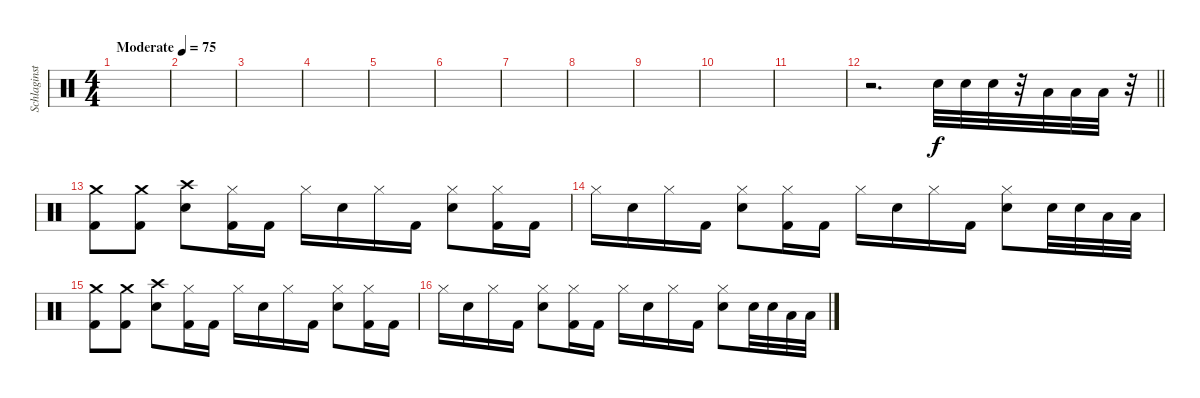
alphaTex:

\track ("Schlaginstrumente - Auswahl" "Schlaginst") {instrument percussion}
\staff {score}
\articulation defaults
\ts (4 4)
\tempo (75 "Moderate")
\clef neutral
\ks c
|
|
|
|
|
|
|
|
|
|
|
\barLineRight lightlight
r.2{d} "Snare (hit) 2".32 "Snare (hit) 2".32 "Snare (hit) 2".32 r.32 "Low Tom (hit)".32 "Low Tom (hit)".32 "Low Tom (hit)".32 r.32 |
("Crash medium (hit)" "Kick (hit) 2").8 ("Crash medium (hit)" "Kick (hit) 2").8 ("Crash high (hit)" "Snare (hit) 2").8 ("Hi-Hat (closed)" "Kick (hit) 2").16 "Kick (hit) 2".16 "Hi-Hat (closed)".16 "Snare (hit) 2".16 "Hi-Hat (closed)".16 "Kick (hit) 2".16 ("Hi-Hat (closed)" "Snare (hit) 2").8 ("Hi-Hat (closed)" "Kick (hit) 2").16 "Kick (hit) 2".16 |
"Hi-Hat (closed)".16 "Snare (hit) 2".16 "Hi-Hat (closed)".16 "Kick (hit) 2".16 ("Hi-Hat (closed)" "Snare (hit) 2").8 ("Hi-Hat (closed)" "Kick (hit) 2").16 "Kick (hit) 2".16 "Hi-Hat (closed)".16 "Snare (hit) 2".16 "Hi-Hat (closed)".16 "Kick (hit) 2".16 ("Hi-Hat (closed)" "Snare (hit) 2").8 "Snare (hit) 2".32 "Snare (hit) 2".32 "Low Tom (hit)".32 "Low Tom (hit)".32 |
("Crash medium (hit)" "Kick (hit) 2").8 ("Crash medium (hit)" "Kick (hit) 2").8 ("Crash high (hit)" "Snare (hit) 2").8 ("Hi-Hat (closed)" "Kick (hit) 2").16 "Kick (hit) 2".16 "Hi-Hat (closed)".16 "Snare (hit) 2".16 "Hi-Hat (closed)".16 "Kick (hit) 2".16 ("Hi-Hat (closed)" "Snare (hit) 2").8 ("Hi-Hat (closed)" "Kick (hit) 2").16 "Kick (hit) 2".16 |
"Hi-Hat (closed)".16 "Snare (hit) 2".16 "Hi-Hat (closed)".16 "Kick (hit) 2".16 ("Hi-Hat (closed)" "Snare (hit) 2").8 ("Hi-Hat (closed)" "Kick (hit) 2").16 "Kick (hit) 2".16 "Hi-Hat (closed)".16 "Snare (hit) 2".16 "Hi-Hat (closed)".16 "Kick (hit) 2".16 ("Hi-Hat (closed)" "Snare (hit) 2").8 "Snare (hit) 2".32 "Snare (hit) 2".32 "Low Tom (hit)".32 "Low Tom (hit)".32
